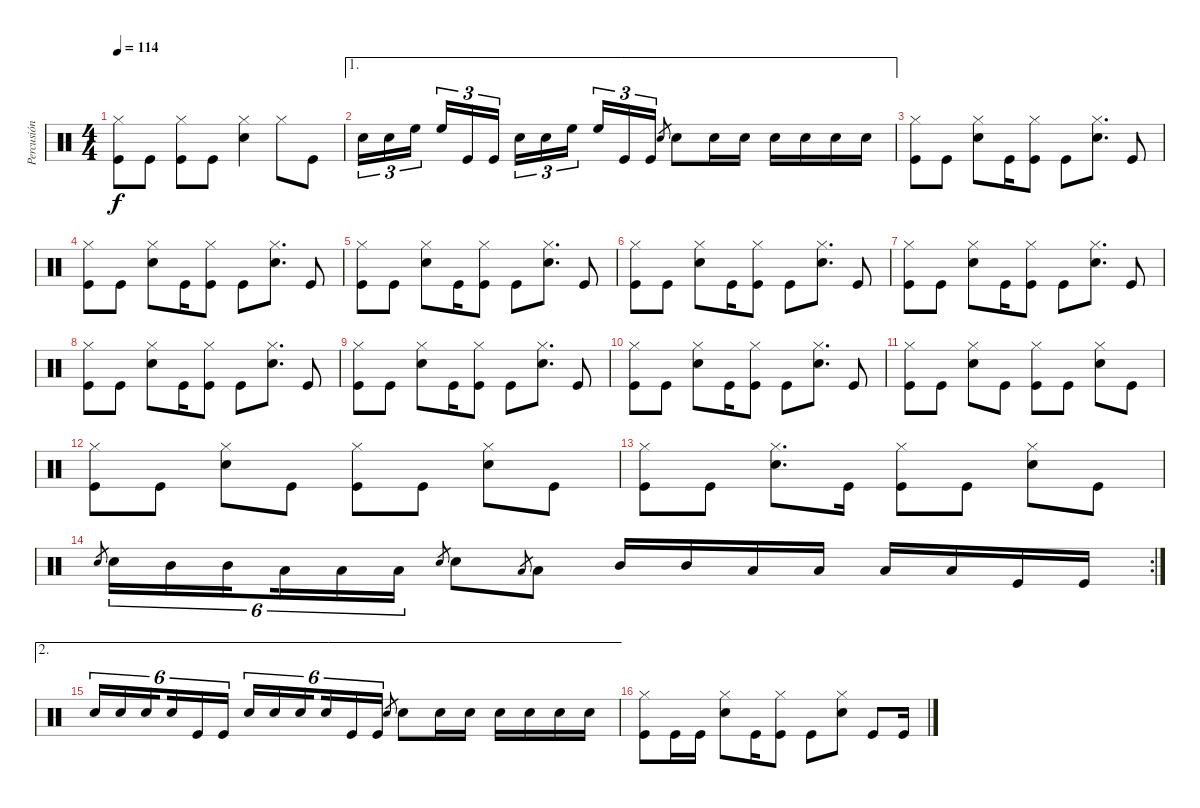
\track ("Percusión" "Percusión") {instrument percussion}
\staff {score}
\articulation defaults
\ts (4 4)
\tempo 114
\clef neutral
\ks c
("Hi-Hat (closed)" "Kick (hit)").8{dy f} "Kick (hit)".8 ("Hi-Hat (closed)" "Kick (hit)").8 "Kick (hit)".8 ("Hi-Hat (closed)" "Snare (hit) 2").4 "Hi-Hat (closed)".8 "Kick (hit)".8 |
\ae 1 "Snare (hit) 2".16{tu (3 2)} "Snare (hit) 2".16{tu (3 2)} "High Floor Tom (hit)".16{tu (3 2) beam splitsecondary} "High Floor Tom (hit)".16{tu (3 2)} "Kick (hit)".16{tu (3 2)} "Kick (hit)".16{tu (3 2)} "Snare (hit) 2".16{tu (3 2)} "Snare (hit) 2".16{tu (3 2)} "High Floor Tom (hit)".16{tu (3 2) beam splitsecondary} "High Floor Tom (hit)".16{tu (3 2)} "Kick (hit)".16{tu (3 2)} "Kick (hit)".16{tu (3 2)} "Snare (hit) 2".8{gr} "Snare (hit) 2".8 "Snare (hit) 2".16 "Snare (hit) 2".16 "Snare (hit) 2".16 "Snare (hit) 2".16 "Snare (hit) 2".16 "Snare (hit) 2".16
|
("Hi-Hat (closed)" "Kick (hit)").8 "Kick (hit)".8 ("Hi-Hat (closed)" "Snare (hit) 2").8 "Kick (hit)".16 ("Hi-Hat (closed)" "Kick (hit)").8 "Kick (hit)".8 ("Hi-Hat (closed)" "Snare (hit) 2").8{d} "Kick (hit)".8 |
("Hi-Hat (closed)" "Kick (hit)").8 "Kick (hit)".8 ("Hi-Hat (closed)" "Snare (hit) 2").8 "Kick (hit)".16 ("Hi-Hat (closed)" "Kick (hit)").8 "Kick (hit)".8 ("Hi-Hat (closed)" "Snare (hit) 2").8{d} "Kick (hit)".8 |
("Hi-Hat (closed)" "Kick (hit)").8 "Kick (hit)".8 ("Hi-Hat (closed)" "Snare (hit) 2").8 "Kick (hit)".16 ("Hi-Hat (closed)" "Kick (hit)").8 "Kick (hit)".8 ("Hi-Hat (closed)" "Snare (hit) 2").8{d} "Kick (hit)".8 |
("Hi-Hat (closed)" "Kick (hit)").8 "Kick (hit)".8 ("Hi-Hat (closed)" "Snare (hit) 2").8 "Kick (hit)".16 ("Hi-Hat (closed)" "Kick (hit)").8 "Kick (hit)".8 ("Hi-Hat (closed)" "Snare (hit) 2").8{d} "Kick (hit)".8 |
("Hi-Hat (closed)" "Kick (hit)").8 "Kick (hit)".8 ("Hi-Hat (closed)" "Snare (hit) 2").8 "Kick (hit)".16 ("Hi-Hat (closed)" "Kick (hit)").8 "Kick (hit)".8 ("Hi-Hat (closed)" "Snare (hit) 2").8{d} "Kick (hit)".8 |
("Hi-Hat (closed)" "Kick (hit)").8 "Kick (hit)".8 ("Hi-Hat (closed)" "Snare (hit) 2").8 "Kick (hit)".16 ("Hi-Hat (closed)" "Kick (hit)").8 "Kick (hit)".8 ("Hi-Hat (closed)" "Snare (hit) 2").8{d} "Kick (hit)".8 |
("Hi-Hat (closed)" "Kick (hit)").8 "Kick (hit)".8 ("Hi-Hat (closed)" "Snare (hit) 2").8 "Kick (hit)".16 ("Hi-Hat (closed)" "Kick (hit)").8 "Kick (hit)".8 ("Hi-Hat (closed)" "Snare (hit) 2").8{d} "Kick (hit)".8 |
("Hi-Hat (closed)" "Kick (hit)").8 "Kick (hit)".8 ("Hi-Hat (closed)" "Snare (hit) 2").8 "Kick (hit)".16 ("Hi-Hat (closed)" "Kick (hit)").8 "Kick (hit)".8 ("Hi-Hat (closed)" "Snare (hit) 2").8{d} "Kick (hit)".8 |
("Hi-Hat (closed)" "Kick (hit)").8 "Kick (hit)".8 ("Hi-Hat (closed)" "Snare (hit) 2").8 "Kick (hit)".8 ("Hi-Hat (closed)" "Kick (hit)").8 "Kick (hit)".8 ("Hi-Hat (closed)" "Snare (hit) 2").8 "Kick (hit)".8 |
("Hi-Hat (closed)" "Kick (hit)").8 "Kick (hit)".8 ("Hi-Hat (closed)" "Snare (hit) 2").8 "Kick (hit)".8 ("Hi-Hat (closed)" "Kick (hit)").8 "Kick (hit)".8 ("Hi-Hat (closed)" "Snare (hit) 2").8 "Kick (hit)".8 |
("Hi-Hat (closed)" "Kick (hit)").8 "Kick (hit)".8 ("Hi-Hat (closed)" "Snare (hit) 2").8{d} "Kick (hit)".16 ("Hi-Hat (closed)" "Kick (hit)").8 "Kick (hit)".8 ("Hi-Hat (closed)" "Snare (hit) 2").8 "Kick (hit)".8 |
\rc 2 "Snare (hit) 2".8{gr} "Snare (hit) 2".16{tu (6 4)} "Mid Tom (hit)".16{tu (6 4)} "Mid Tom (hit)".16{tu (6 4) beam splitsecondary} "Low Tom (hit)".16{tu (6 4)} "Low Tom (hit)".16{tu (6 4)} "Low Tom (hit)".16{tu (6 4)} "Snare (hit) 2".8{gr} "Snare (hit) 2".8 "Low Tom (hit)".8{gr} "Low Tom (hit)".8 "Mid Tom (hit)".16 "Mid Tom (hit)".16 "Low Tom (hit)".16 "Low Tom (hit)".16 "Low Tom (hit)".16 "Low Tom (hit)".16 "Kick (hit)".16 "Kick (hit)".16
|
\ae 2 "Snare (hit) 2".16{tu (6 4)} "Snare (hit) 2".16{tu (6 4)} "Snare (hit) 2".16{tu (6 4) beam splitsecondary} "Snare (hit) 2".16{tu (6 4)} "Kick (hit)".16{tu (6 4)} "Kick (hit)".16{tu (6 4)} "Snare (hit) 2".16{tu (6 4)} "Snare (hit) 2".16{tu (6 4)} "Snare (hit) 2".16{tu (6 4) beam splitsecondary} "Snare (hit) 2".16{tu (6 4)} "Kick (hit)".16{tu (6 4)} "Kick (hit)".16{tu (6 4)} "Snare (hit) 2".8{gr} "Snare (hit) 2".8 "Snare (hit) 2".16 "Snare (hit) 2".16 "Snare (hit) 2".16 "Snare (hit) 2".16 "Snare (hit) 2".16 "Snare (hit) 2".16
|
("Hi-Hat (closed)" "Kick (hit)").8 "Kick (hit)".16 "Kick (hit)".16 ("Hi-Hat (closed)" "Snare (hit) 2").8 "Kick (hit)".16 ("Hi-Hat (closed)" "Kick (hit)").8 "Kick (hit)".8 ("Hi-Hat (closed)" "Snare (hit) 2").8 "Kick (hit)".8 "Kick (hit)".16
